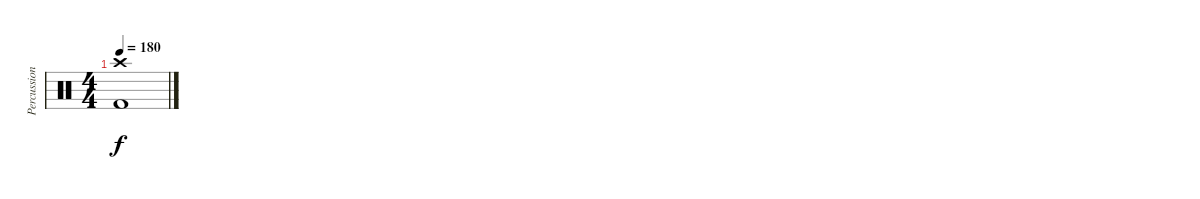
\track ("Percussions" "Percussion") {instrument percussion}
\staff {score}
\articulation defaults
\ts (4 4)
\tempo 180
\clef neutral
\ks c
("Crash high (hit)" "Kick (hit) 2").1{dy f}
